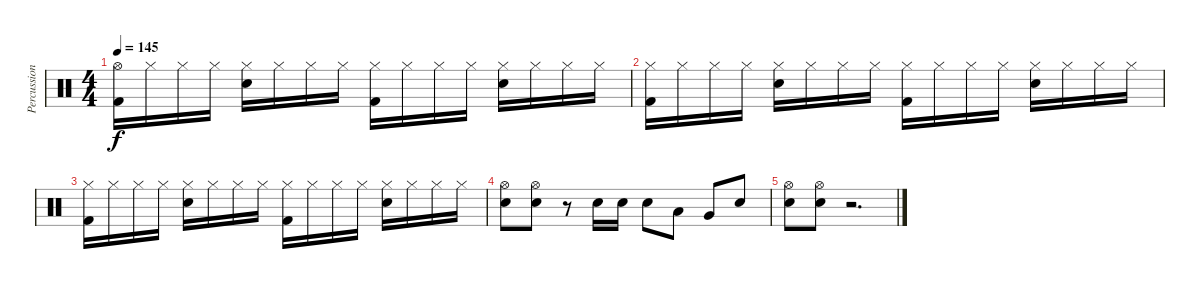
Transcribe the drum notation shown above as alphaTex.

\track ("Percussion" "Percussion") {instrument percussion}
\staff {score}
\articulation defaults
\ts (4 4)
\tempo 145
\clef neutral
\ks c
("Hi-Hat (open)" "Kick (hit) 2").16{dy f} "Hi-Hat (closed)".16 "Hi-Hat (closed)".16 "Hi-Hat (closed)".16 ("Hi-Hat (closed)" "Electric Snare (hit)").16 "Hi-Hat (closed)".16 "Hi-Hat (closed)".16 "Hi-Hat (closed)".16 ("Hi-Hat (closed)" "Kick (hit) 2").16 "Hi-Hat (closed)".16 "Hi-Hat (closed)".16 "Hi-Hat (closed)".16 ("Hi-Hat (closed)" "Electric Snare (hit)").16 "Hi-Hat (closed)".16 "Hi-Hat (closed)".16 "Hi-Hat (closed)".16 |
("Hi-Hat (closed)" "Kick (hit) 2").16 "Hi-Hat (closed)".16 "Hi-Hat (closed)".16 "Hi-Hat (closed)".16 ("Hi-Hat (closed)" "Electric Snare (hit)").16 "Hi-Hat (closed)".16 "Hi-Hat (closed)".16 "Hi-Hat (closed)".16 ("Hi-Hat (closed)" "Kick (hit) 2").16 "Hi-Hat (closed)".16 "Hi-Hat (closed)".16 "Hi-Hat (closed)".16 ("Hi-Hat (closed)" "Electric Snare (hit)").16 "Hi-Hat (closed)".16 "Hi-Hat (closed)".16 "Hi-Hat (closed)".16 |
("Hi-Hat (closed)" "Kick (hit) 2").16 "Hi-Hat (closed)".16 "Hi-Hat (closed)".16 "Hi-Hat (closed)".16 ("Hi-Hat (closed)" "Electric Snare (hit)").16 "Hi-Hat (closed)".16 "Hi-Hat (closed)".16 "Hi-Hat (closed)".16 ("Hi-Hat (closed)" "Kick (hit) 2").16 "Hi-Hat (closed)".16 "Hi-Hat (closed)".16 "Hi-Hat (closed)".16 ("Hi-Hat (closed)" "Electric Snare (hit)").16 "Hi-Hat (closed)".16 "Hi-Hat (closed)".16 "Hi-Hat (closed)".16 |
("Hi-Hat (open)" "Electric Snare (hit)").8 ("Hi-Hat (open)" "Electric Snare (hit)").8 r.8 "Electric Snare (hit)".16 "Electric Snare (hit)".16 "Electric Snare (hit)".8 "Low Tom (hit)".8 "Very Low Tom (hit)".8 "Electric Snare (hit)".8 |
("Hi-Hat (open)" "Electric Snare (hit)").8 ("Hi-Hat (open)" "Electric Snare (hit)").8 r.2{d}
